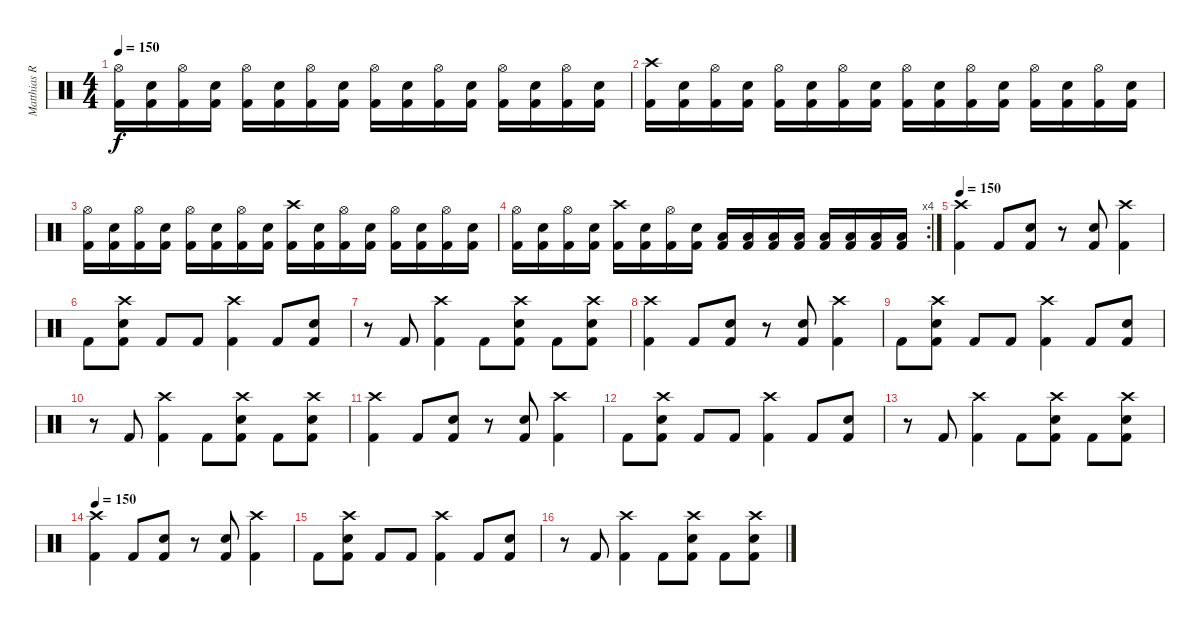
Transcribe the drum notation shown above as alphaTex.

\track ("Matthias Rodig" "Matthias R") {instrument percussion}
\staff {score}
\articulation defaults
\ts (4 4)
\tempo 150
\clef neutral
\ks c
("Kick (hit) 2" "Hi-Hat (open)").16{dy f} ("Kick (hit) 2" "Snare (hit) 2").16 ("Kick (hit) 2" "Hi-Hat (open)").16 ("Kick (hit) 2" "Snare (hit) 2").16 ("Kick (hit) 2" "Hi-Hat (open)").16 ("Kick (hit) 2" "Snare (hit) 2").16 ("Kick (hit) 2" "Hi-Hat (open)").16 ("Kick (hit) 2" "Snare (hit) 2").16 ("Kick (hit) 2" "Hi-Hat (open)").16 ("Kick (hit) 2" "Snare (hit) 2").16 ("Kick (hit) 2" "Hi-Hat (open)").16 ("Kick (hit) 2" "Snare (hit) 2").16 ("Kick (hit) 2" "Hi-Hat (open)").16 ("Kick (hit) 2" "Snare (hit) 2").16 ("Kick (hit) 2" "Hi-Hat (open)").16 ("Kick (hit) 2" "Snare (hit) 2").16 |
("Kick (hit) 2" "Crash high (hit)").16 ("Kick (hit) 2" "Snare (hit) 2").16 ("Kick (hit) 2" "Hi-Hat (open)").16 ("Kick (hit) 2" "Snare (hit) 2").16 ("Kick (hit) 2" "Hi-Hat (open)").16 ("Kick (hit) 2" "Snare (hit) 2").16 ("Kick (hit) 2" "Hi-Hat (open)").16 ("Kick (hit) 2" "Snare (hit) 2").16 ("Kick (hit) 2" "Hi-Hat (open)").16 ("Kick (hit) 2" "Snare (hit) 2").16 ("Kick (hit) 2" "Hi-Hat (open)").16 ("Kick (hit) 2" "Snare (hit) 2").16 ("Kick (hit) 2" "Hi-Hat (open)").16 ("Kick (hit) 2" "Snare (hit) 2").16 ("Kick (hit) 2" "Hi-Hat (open)").16 ("Kick (hit) 2" "Snare (hit) 2").16 |
("Kick (hit) 2" "Hi-Hat (open)").16 ("Kick (hit) 2" "Snare (hit) 2").16 ("Kick (hit) 2" "Hi-Hat (open)").16 ("Kick (hit) 2" "Snare (hit) 2").16 ("Kick (hit) 2" "Hi-Hat (open)").16 ("Kick (hit) 2" "Snare (hit) 2").16 ("Kick (hit) 2" "Hi-Hat (open)").16 ("Kick (hit) 2" "Snare (hit) 2").16 ("Kick (hit) 2" "Crash high (hit)").16 ("Kick (hit) 2" "Snare (hit) 2").16 ("Kick (hit) 2" "Hi-Hat (open)").16 ("Kick (hit) 2" "Snare (hit) 2").16 ("Kick (hit) 2" "Hi-Hat (open)").16 ("Kick (hit) 2" "Snare (hit) 2").16 ("Kick (hit) 2" "Hi-Hat (open)").16 ("Kick (hit) 2" "Snare (hit) 2").16 |
\rc 4
("Kick (hit) 2" "Hi-Hat (open)").16 ("Kick (hit) 2" "Snare (hit) 2").16 ("Kick (hit) 2" "Hi-Hat (open)").16 ("Kick (hit) 2" "Snare (hit) 2").16 ("Kick (hit) 2" "Crash high (hit)").16 ("Kick (hit) 2" "Snare (hit) 2").16 ("Kick (hit) 2" "Hi-Hat (open)").16 ("Kick (hit) 2" "Snare (hit) 2").16 ("Kick (hit) 2" "Low Tom (hit)").16 ("Kick (hit) 2" "Low Tom (hit)").16 ("Kick (hit) 2" "Low Tom (hit)").16 ("Kick (hit) 2" "Low Tom (hit)").16 ("Kick (hit) 2" "Low Floor Tom (hit)").16 ("Kick (hit) 2" "Low Floor Tom (hit)").16 ("Kick (hit) 2" "Low Floor Tom (hit)").16 ("Kick (hit) 2" "Low Floor Tom (hit)").16 |
\tempo 150
("Kick (hit) 2" "Crash high (hit)").4 "Kick (hit) 2".8 ("Kick (hit) 2" "Snare (hit) 2").8 r.8 ("Kick (hit) 2" "Snare (hit) 2").8 ("Kick (hit) 2" "Crash high (hit)").4 |
"Kick (hit) 2".8 ("Kick (hit) 2" "Snare (hit) 2" "Crash high (hit)").8 "Kick (hit) 2".8 "Kick (hit) 2".8 ("Kick (hit) 2" "Crash high (hit)").4 "Kick (hit) 2".8 ("Kick (hit) 2" "Snare (hit) 2").8 |
r.8 "Kick (hit) 2".8 ("Kick (hit) 2" "Crash high (hit)").4 "Kick (hit) 2".8 ("Kick (hit) 2" "Snare (hit) 2" "Crash high (hit)").8 "Kick (hit) 2".8 ("Kick (hit) 2" "Snare (hit) 2" "Crash high (hit)").8 |
("Kick (hit) 2" "Crash high (hit)").4 "Kick (hit) 2".8 ("Kick (hit) 2" "Snare (hit) 2").8 r.8 ("Kick (hit) 2" "Snare (hit) 2").8 ("Kick (hit) 2" "Crash high (hit)").4 |
"Kick (hit) 2".8 ("Kick (hit) 2" "Snare (hit) 2" "Crash high (hit)").8 "Kick (hit) 2".8 "Kick (hit) 2".8 ("Kick (hit) 2" "Crash high (hit)").4 "Kick (hit) 2".8 ("Kick (hit) 2" "Snare (hit) 2").8 |
r.8 "Kick (hit) 2".8 ("Kick (hit) 2" "Crash high (hit)").4 "Kick (hit) 2".8 ("Kick (hit) 2" "Snare (hit) 2" "Crash high (hit)").8 "Kick (hit) 2".8 ("Kick (hit) 2" "Snare (hit) 2" "Crash high (hit)").8 |
("Kick (hit) 2" "Crash high (hit)").4 "Kick (hit) 2".8 ("Kick (hit) 2" "Snare (hit) 2").8 r.8 ("Kick (hit) 2" "Snare (hit) 2").8 ("Kick (hit) 2" "Crash high (hit)").4 |
"Kick (hit) 2".8 ("Kick (hit) 2" "Snare (hit) 2" "Crash high (hit)").8 "Kick (hit) 2".8 "Kick (hit) 2".8 ("Kick (hit) 2" "Crash high (hit)").4 "Kick (hit) 2".8 ("Kick (hit) 2" "Snare (hit) 2").8 |
r.8 "Kick (hit) 2".8 ("Kick (hit) 2" "Crash high (hit)").4 "Kick (hit) 2".8 ("Kick (hit) 2" "Snare (hit) 2" "Crash high (hit)").8 "Kick (hit) 2".8 ("Kick (hit) 2" "Snare (hit) 2" "Crash high (hit)").8 |
\tempo 150
("Kick (hit) 2" "Crash high (hit)").4 "Kick (hit) 2".8 ("Kick (hit) 2" "Snare (hit) 2").8 r.8 ("Kick (hit) 2" "Snare (hit) 2").8 ("Kick (hit) 2" "Crash high (hit)").4 |
"Kick (hit) 2".8 ("Kick (hit) 2" "Snare (hit) 2" "Crash high (hit)").8 "Kick (hit) 2".8 "Kick (hit) 2".8 ("Kick (hit) 2" "Crash high (hit)").4 "Kick (hit) 2".8 ("Kick (hit) 2" "Snare (hit) 2").8 |
r.8 "Kick (hit) 2".8 ("Kick (hit) 2" "Crash high (hit)").4 "Kick (hit) 2".8 ("Kick (hit) 2" "Snare (hit) 2" "Crash high (hit)").8 "Kick (hit) 2".8 ("Kick (hit) 2" "Snare (hit) 2" "Crash high (hit)").8
